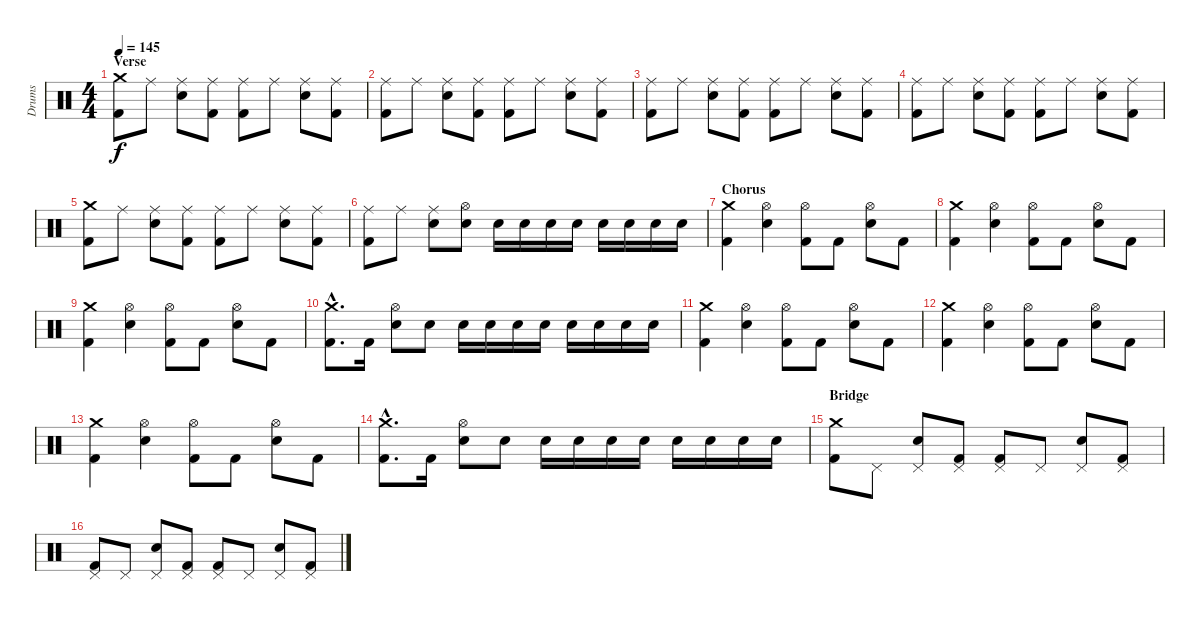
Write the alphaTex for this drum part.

\track ("Drums" "Drums") {instrument percussion}
\staff {score}
\articulation defaults
\ts (4 4)
\section ("" "Verse")
\tempo 145
\clef neutral
\ks c
("Crash medium (hit)" "Kick (hit) 2").8{dy f} "Ride (middle)".8 ("Ride (middle)" "Electric Snare (hit)").8 ("Ride (middle)" "Kick (hit) 2").8 ("Ride (middle)" "Kick (hit) 2").8 "Ride (middle)".8 ("Ride (middle)" "Electric Snare (hit)").8 ("Ride (middle)" "Kick (hit) 2").8 |
("Ride (middle)" "Kick (hit) 2").8 "Ride (middle)".8 ("Ride (middle)" "Electric Snare (hit)").8 ("Ride (middle)" "Kick (hit) 2").8 ("Ride (middle)" "Kick (hit) 2").8 "Ride (middle)".8 ("Ride (middle)" "Electric Snare (hit)").8 ("Ride (middle)" "Kick (hit) 2").8 |
("Ride (middle)" "Kick (hit) 2").8 "Ride (middle)".8 ("Ride (middle)" "Electric Snare (hit)").8 ("Ride (middle)" "Kick (hit) 2").8 ("Ride (middle)" "Kick (hit) 2").8 "Ride (middle)".8 ("Ride (middle)" "Electric Snare (hit)").8 ("Ride (middle)" "Kick (hit) 2").8 |
("Ride (middle)" "Kick (hit) 2").8 "Ride (middle)".8 ("Ride (middle)" "Electric Snare (hit)").8 ("Ride (middle)" "Kick (hit) 2").8 ("Ride (middle)" "Kick (hit) 2").8 "Ride (middle)".8 ("Ride (middle)" "Electric Snare (hit)").8 ("Ride (middle)" "Kick (hit) 2").8 |
("Crash medium (hit)" "Kick (hit) 2").8 "Ride (middle)".8 ("Ride (middle)" "Electric Snare (hit)").8 ("Ride (middle)" "Kick (hit) 2").8 ("Ride (middle)" "Kick (hit) 2").8 "Ride (middle)".8 ("Ride (middle)" "Electric Snare (hit)").8 ("Ride (middle)" "Kick (hit) 2").8 |
("Ride (middle)" "Kick (hit) 2").8 "Ride (middle)".8 ("Ride (middle)" "Electric Snare (hit)").8 ("Hi-Hat (open)" "Electric Snare (hit)").8 "Electric Snare (hit)".16 "Electric Snare (hit)".16 "Electric Snare (hit)".16 "Electric Snare (hit)".16 "Electric Snare (hit)".16 "Electric Snare (hit)".16 "Electric Snare (hit)".16 "Electric Snare (hit)".16 |
\section ("" "Chorus")
("Crash medium (hit)" "Kick (hit) 2").4 ("Hi-Hat (open)" "Electric Snare (hit)").4 ("Hi-Hat (open)" "Kick (hit) 2").8 "Kick (hit) 2".8 ("Hi-Hat (open)" "Electric Snare (hit)").8 "Kick (hit) 2".8 |
("Crash medium (hit)" "Kick (hit) 2").4 ("Hi-Hat (open)" "Electric Snare (hit)").4 ("Hi-Hat (open)" "Kick (hit) 2").8 "Kick (hit) 2".8 ("Hi-Hat (open)" "Electric Snare (hit)").8 "Kick (hit) 2".8 |
("Crash medium (hit)" "Kick (hit) 2").4 ("Hi-Hat (open)" "Electric Snare (hit)").4 ("Hi-Hat (open)" "Kick (hit) 2").8 "Kick (hit) 2".8 ("Hi-Hat (open)" "Electric Snare (hit)").8 "Kick (hit) 2".8 |
("Crash medium (hit)"{hac} "Kick (hit) 2"{hac}).8{d} "Kick (hit) 2".16 ("Hi-Hat (open)" "Electric Snare (hit)").8 "Electric Snare (hit)".8 "Electric Snare (hit)".16 "Electric Snare (hit)".16 "Electric Snare (hit)".16 "Electric Snare (hit)".16 "Electric Snare (hit)".16 "Electric Snare (hit)".16 "Electric Snare (hit)".16 "Electric Snare (hit)".16 |
("Crash medium (hit)" "Kick (hit) 2").4 ("Hi-Hat (open)" "Electric Snare (hit)").4 ("Hi-Hat (open)" "Kick (hit) 2").8 "Kick (hit) 2".8 ("Hi-Hat (open)" "Electric Snare (hit)").8 "Kick (hit) 2".8 |
("Crash medium (hit)" "Kick (hit) 2").4 ("Hi-Hat (open)" "Electric Snare (hit)").4 ("Hi-Hat (open)" "Kick (hit) 2").8 "Kick (hit) 2".8 ("Hi-Hat (open)" "Electric Snare (hit)").8 "Kick (hit) 2".8 |
("Crash medium (hit)" "Kick (hit) 2").4 ("Hi-Hat (open)" "Electric Snare (hit)").4 ("Hi-Hat (open)" "Kick (hit) 2").8 "Kick (hit) 2".8 ("Hi-Hat (open)" "Electric Snare (hit)").8 "Kick (hit) 2".8 |
("Crash medium (hit)"{hac} "Kick (hit) 2"{hac}).8{d} "Kick (hit) 2".16 ("Hi-Hat (open)" "Electric Snare (hit)").8 "Electric Snare (hit)".8 "Electric Snare (hit)".16 "Electric Snare (hit)".16 "Electric Snare (hit)".16 "Electric Snare (hit)".16 "Electric Snare (hit)".16 "Electric Snare (hit)".16 "Electric Snare (hit)".16 "Electric Snare (hit)".16 |
\section ("" "Bridge")
("Crash medium (hit)" "Kick (hit) 2").8 "Pedal Hi-Hat (hit)".8 ("Pedal Hi-Hat (hit)" "Electric Snare (hit)").8 ("Pedal Hi-Hat (hit)" "Kick (hit) 2").8 ("Pedal Hi-Hat (hit)" "Kick (hit) 2").8 "Pedal Hi-Hat (hit)".8 ("Pedal Hi-Hat (hit)" "Electric Snare (hit)").8 ("Pedal Hi-Hat (hit)" "Kick (hit) 2").8 |
("Pedal Hi-Hat (hit)" "Kick (hit) 2").8 "Pedal Hi-Hat (hit)".8 ("Pedal Hi-Hat (hit)" "Electric Snare (hit)").8 ("Pedal Hi-Hat (hit)" "Kick (hit) 2").8 ("Pedal Hi-Hat (hit)" "Kick (hit) 2").8 "Pedal Hi-Hat (hit)".8 ("Pedal Hi-Hat (hit)" "Electric Snare (hit)").8 ("Pedal Hi-Hat (hit)" "Kick (hit) 2").8
